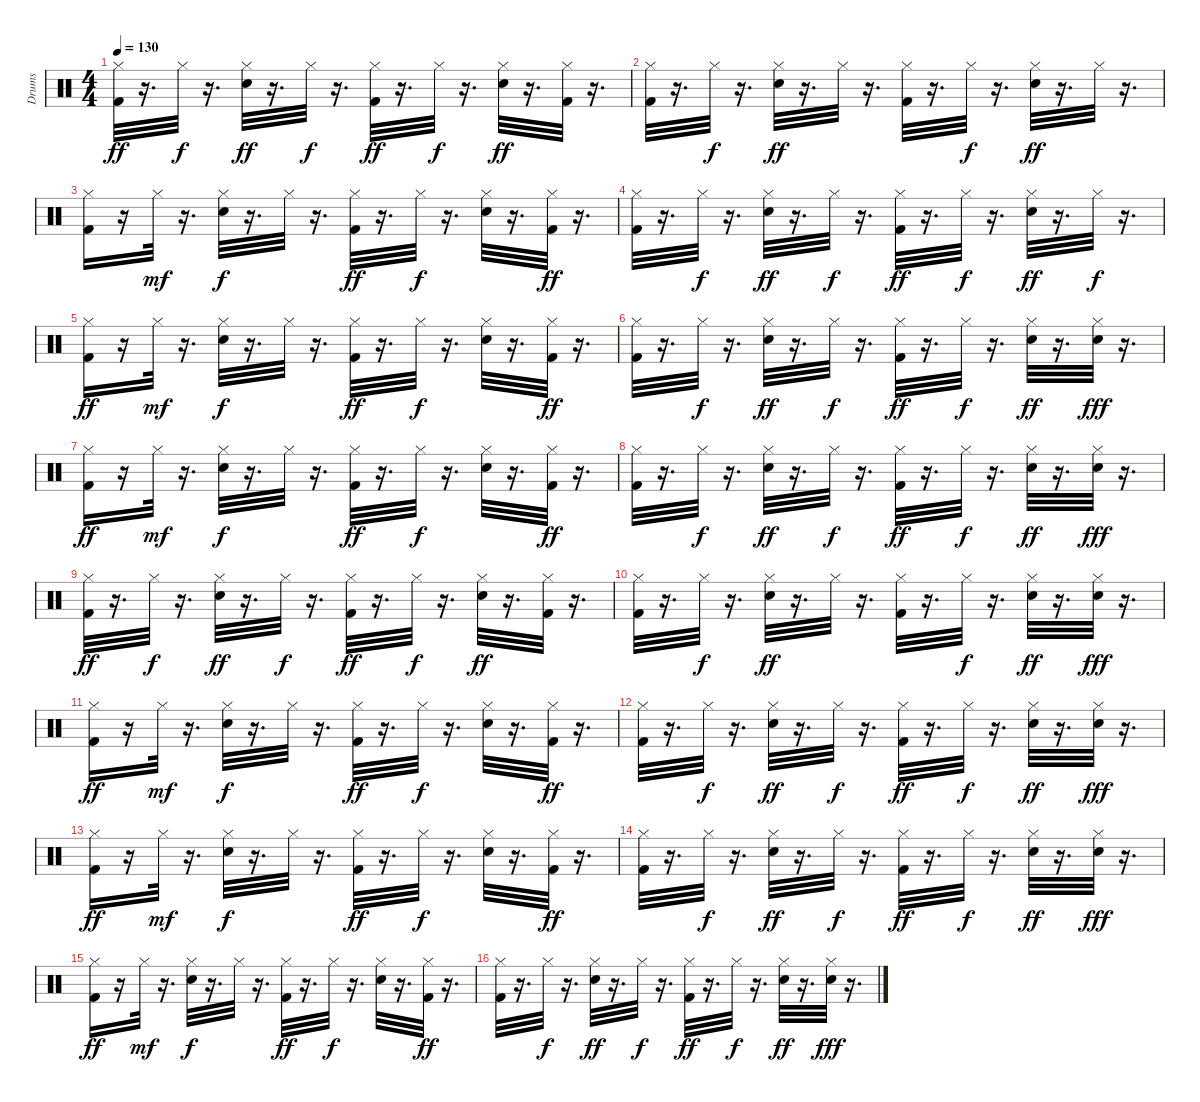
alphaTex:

\track ("Drums" "Drums") {instrument percussion}
\staff {score}
\articulation defaults
\ts (4 4)
\tempo 130
\clef neutral
\ks c
("Hi-Hat (closed)" "Kick (hit) 2").32{dy ff} r.16{d} "Hi-Hat (closed)".32{dy f} r.16{d} ("Snare (hit) 2" "Hi-Hat (closed)").32{dy ff} r.16{d} "Hi-Hat (closed)".32{dy f} r.16{d} ("Kick (hit) 2" "Hi-Hat (closed)").32{dy ff} r.16{d} "Hi-Hat (closed)".32{dy f} r.16{d} ("Hi-Hat (closed)" "Snare (hit) 2").32{dy ff} r.16{d} ("Kick (hit) 2" "Hi-Hat (closed)").32 r.16{d} |
("Hi-Hat (closed)" "Kick (hit) 2").32 r.16{d} "Hi-Hat (closed)".32{dy f} r.16{d} ("Hi-Hat (closed)" "Snare (hit) 2").32{dy ff} r.16{d} "Hi-Hat (closed)".32 r.16{d} ("Hi-Hat (closed)" "Kick (hit) 2").32 r.16{d} "Hi-Hat (closed)".32{dy f} r.16{d} ("Hi-Hat (closed)" "Snare (hit) 2").32{dy ff} r.16{d} "Hi-Hat (closed)".32 r.16{d} |
("Kick (hit) 2" "Hi-Hat (closed)").16 r.16 "Hi-Hat (closed)".32{dy mf} r.16{d} ("Hi-Hat (closed)" "Snare (hit) 2").32{dy f} r.16{d} "Hi-Hat (closed)".32 r.16{d} ("Kick (hit) 2" "Hi-Hat (closed)").32{dy ff} r.16{d} "Hi-Hat (closed)".32{dy f} r.16{d} ("Hi-Hat (closed)" "Snare (hit) 2").32 r.16{d} ("Kick (hit) 2" "Hi-Hat (closed)").32{dy ff} r.16{d} |
("Hi-Hat (closed)" "Kick (hit) 2").32 r.16{d} "Hi-Hat (closed)".32{dy f} r.16{d} ("Snare (hit) 2" "Hi-Hat (closed)").32{dy ff} r.16{d} "Hi-Hat (closed)".32{dy f} r.16{d} ("Hi-Hat (closed)" "Kick (hit) 2").32{dy ff} r.16{d} "Hi-Hat (closed)".32{dy f} r.16{d} ("Snare (hit) 2" "Hi-Hat (closed)").32{dy ff} r.16{d} "Hi-Hat (closed)".32{dy f} r.16{d} |
("Kick (hit) 2" "Hi-Hat (closed)").16{dy ff} r.16 "Hi-Hat (closed)".32{dy mf} r.16{d} ("Hi-Hat (closed)" "Snare (hit) 2").32{dy f} r.16{d} "Hi-Hat (closed)".32 r.16{d} ("Hi-Hat (closed)" "Kick (hit) 2").32{dy ff} r.16{d} "Hi-Hat (closed)".32{dy f} r.16{d} ("Hi-Hat (closed)" "Snare (hit) 2").32 r.16{d} ("Hi-Hat (closed)" "Kick (hit) 2").32{dy ff} r.16{d} |
("Kick (hit) 2" "Hi-Hat (closed)").32 r.16{d} "Hi-Hat (closed)".32{dy f} r.16{d} ("Snare (hit) 2" "Hi-Hat (closed)").32{dy ff} r.16{d} "Hi-Hat (closed)".32{dy f} r.16{d} ("Hi-Hat (closed)" "Kick (hit) 2").32{dy ff} r.16{d} "Hi-Hat (closed)".32{dy f} r.16{d} ("Hi-Hat (closed)" "Snare (hit) 2").32{dy ff} r.16{d} ("Hand Clap (hit)" "Hi-Hat (closed)").32{dy fff} r.16{d} |
("Kick (hit) 2" "Hi-Hat (closed)").16{dy ff} r.16 "Hi-Hat (closed)".32{dy mf} r.16{d} ("Snare (hit) 2" "Hi-Hat (closed)").32{dy f} r.16{d} "Hi-Hat (closed)".32 r.16{d} ("Kick (hit) 2" "Hi-Hat (closed)").32{dy ff} r.16{d} "Hi-Hat (closed)".32{dy f} r.16{d} ("Hi-Hat (closed)" "Snare (hit) 2").32 r.16{d} ("Kick (hit) 2" "Hi-Hat (closed)").32{dy ff} r.16{d} |
("Kick (hit) 2" "Hi-Hat (closed)").32 r.16{d} "Hi-Hat (closed)".32{dy f} r.16{d} ("Snare (hit) 2" "Hi-Hat (closed)").32{dy ff} r.16{d} "Hi-Hat (closed)".32{dy f} r.16{d} ("Kick (hit) 2" "Hi-Hat (closed)").32{dy ff} r.16{d} "Hi-Hat (closed)".32{dy f} r.16{d} ("Hi-Hat (closed)" "Snare (hit) 2").32{dy ff} r.16{d} ("Hi-Hat (closed)" "Hand Clap (hit)").32{dy fff} r.16{d} |
("Kick (hit) 2" "Hi-Hat (closed)").32{dy ff} r.16{d} "Hi-Hat (closed)".32{dy f} r.16{d} ("Hi-Hat (closed)" "Snare (hit) 2").32{dy ff} r.16{d} "Hi-Hat (closed)".32{dy f} r.16{d} ("Hi-Hat (closed)" "Kick (hit) 2").32{dy ff} r.16{d} "Hi-Hat (closed)".32{dy f} r.16{d} ("Hi-Hat (closed)" "Snare (hit) 2").32{dy ff} r.16{d} ("Kick (hit) 2" "Hi-Hat (closed)").32 r.16{d} |
("Hi-Hat (closed)" "Kick (hit) 2").32 r.16{d} "Hi-Hat (closed)".32{dy f} r.16{d} ("Hi-Hat (closed)" "Snare (hit) 2").32{dy ff} r.16{d} "Hi-Hat (closed)".32 r.16{d} ("Hi-Hat (closed)" "Kick (hit) 2").32 r.16{d} "Hi-Hat (closed)".32{dy f} r.16{d} ("Snare (hit) 2" "Hi-Hat (closed)").32{dy ff} r.16{d} ("Hi-Hat (closed)" "Hand Clap (hit)").32{dy fff} r.16{d} |
("Hi-Hat (closed)" "Kick (hit) 2").16{dy ff} r.16 "Hi-Hat (closed)".32{dy mf} r.16{d} ("Snare (hit) 2" "Hi-Hat (closed)").32{dy f} r.16{d} "Hi-Hat (closed)".32 r.16{d} ("Kick (hit) 2" "Hi-Hat (closed)").32{dy ff} r.16{d} "Hi-Hat (closed)".32{dy f} r.16{d} ("Snare (hit) 2" "Hi-Hat (closed)").32 r.16{d} ("Kick (hit) 2" "Hi-Hat (closed)").32{dy ff} r.16{d} |
("Hi-Hat (closed)" "Kick (hit) 2").32 r.16{d} "Hi-Hat (closed)".32{dy f} r.16{d} ("Hi-Hat (closed)" "Snare (hit) 2").32{dy ff} r.16{d} "Hi-Hat (closed)".32{dy f} r.16{d} ("Hi-Hat (closed)" "Kick (hit) 2").32{dy ff} r.16{d} "Hi-Hat (closed)".32{dy f} r.16{d} ("Hi-Hat (closed)" "Snare (hit) 2").32{dy ff} r.16{d} ("Hand Clap (hit)" "Hi-Hat (closed)").32{dy fff} r.16{d} |
("Hi-Hat (closed)" "Kick (hit) 2").16{dy ff} r.16 "Hi-Hat (closed)".32{dy mf} r.16{d} ("Hi-Hat (closed)" "Snare (hit) 2").32{dy f} r.16{d} "Hi-Hat (closed)".32 r.16{d} ("Kick (hit) 2" "Hi-Hat (closed)").32{dy ff} r.16{d} "Hi-Hat (closed)".32{dy f} r.16{d} ("Hi-Hat (closed)" "Snare (hit) 2").32 r.16{d} ("Kick (hit) 2" "Hi-Hat (closed)").32{dy ff} r.16{d} |
("Kick (hit) 2" "Hi-Hat (closed)").32 r.16{d} "Hi-Hat (closed)".32{dy f} r.16{d} ("Hi-Hat (closed)" "Snare (hit) 2").32{dy ff} r.16{d} "Hi-Hat (closed)".32{dy f} r.16{d} ("Kick (hit) 2" "Hi-Hat (closed)").32{dy ff} r.16{d} "Hi-Hat (closed)".32{dy f} r.16{d} ("Hi-Hat (closed)" "Snare (hit) 2").32{dy ff} r.16{d} ("Hi-Hat (closed)" "Hand Clap (hit)").32{dy fff} r.16{d} |
("Hi-Hat (closed)" "Kick (hit) 2").16{dy ff} r.16 "Hi-Hat (closed)".32{dy mf} r.16{d} ("Snare (hit) 2" "Hi-Hat (closed)").32{dy f} r.16{d} "Hi-Hat (closed)".32 r.16{d} ("Kick (hit) 2" "Hi-Hat (closed)").32{dy ff} r.16{d} "Hi-Hat (closed)".32{dy f} r.16{d} ("Snare (hit) 2" "Hi-Hat (closed)").32 r.16{d} ("Kick (hit) 2" "Hi-Hat (closed)").32{dy ff} r.16{d} |
("Hi-Hat (closed)" "Kick (hit) 2").32 r.16{d} "Hi-Hat (closed)".32{dy f} r.16{d} ("Hi-Hat (closed)" "Snare (hit) 2").32{dy ff} r.16{d} "Hi-Hat (closed)".32{dy f} r.16{d} ("Hi-Hat (closed)" "Kick (hit) 2").32{dy ff} r.16{d} "Hi-Hat (closed)".32{dy f} r.16{d} ("Hi-Hat (closed)" "Snare (hit) 2").32{dy ff} r.16{d} ("Hi-Hat (closed)" "Hand Clap (hit)").32{dy fff} r.16{d}
